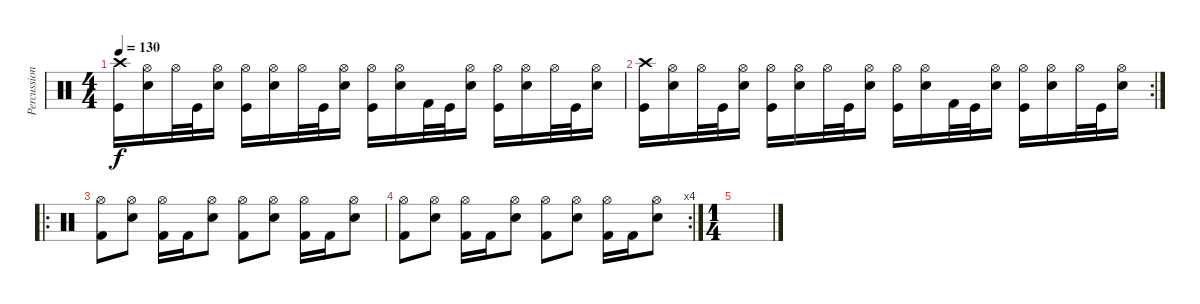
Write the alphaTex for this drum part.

\track ("Percussion" "Percussion") {instrument percussion}
\staff {score}
\articulation defaults
\ts (4 4)
\tempo 130
\clef neutral
\ks c
("Crash high (hit)" "Kick (hit)").16{dy f} ("Hi-Hat (open)" "Snare (hit) 2").16 "Hi-Hat (open)".32 "Kick (hit)".32 ("Hi-Hat (open)" "Snare (hit) 2").16 ("Hi-Hat (open)" "Kick (hit)").16 ("Hi-Hat (open)" "Snare (hit) 2").16 "Hi-Hat (open)".32 "Kick (hit)".32 ("Hi-Hat (open)" "Snare (hit) 2").16 ("Hi-Hat (open)" "Kick (hit)").16 ("Hi-Hat (open)" "Snare (hit) 2").16 "Kick (hit) 2".32 "Kick (hit)".32 ("Hi-Hat (open)" "Snare (hit) 2").16 ("Hi-Hat (open)" "Kick (hit)").16 ("Hi-Hat (open)" "Snare (hit) 2").16 "Hi-Hat (open)".32 "Kick (hit)".32 ("Hi-Hat (open)" "Snare (hit) 2").16 |
\rc 2
("Crash high (hit)" "Kick (hit)").16 ("Hi-Hat (open)" "Snare (hit) 2").16 "Hi-Hat (open)".32 "Kick (hit)".32 ("Hi-Hat (open)" "Snare (hit) 2").16 ("Hi-Hat (open)" "Kick (hit)").16 ("Hi-Hat (open)" "Snare (hit) 2").16 "Hi-Hat (open)".32 "Kick (hit)".32 ("Hi-Hat (open)" "Snare (hit) 2").16 ("Hi-Hat (open)" "Kick (hit)").16 ("Hi-Hat (open)" "Snare (hit) 2").16 "Kick (hit) 2".32 "Kick (hit)".32 ("Hi-Hat (open)" "Snare (hit) 2").16 ("Hi-Hat (open)" "Kick (hit)").16 ("Hi-Hat (open)" "Snare (hit) 2").16 "Hi-Hat (open)".32 "Kick (hit)".32 ("Hi-Hat (open)" "Snare (hit) 2").16 |
\ro
("Hi-Hat (open)" "Kick (hit) 2").8 ("Hi-Hat (open)" "Snare (hit) 2").8 ("Hi-Hat (open)" "Kick (hit) 2").16 "Kick (hit) 2".16 ("Hi-Hat (open)" "Snare (hit) 2").8 ("Hi-Hat (open)" "Kick (hit) 2").8 ("Hi-Hat (open)" "Snare (hit) 2").8 ("Hi-Hat (open)" "Kick (hit) 2").16 "Kick (hit) 2".16 ("Hi-Hat (open)" "Snare (hit) 2").8 |
\rc 4
("Hi-Hat (open)" "Kick (hit) 2").8 ("Hi-Hat (open)" "Snare (hit) 2").8 ("Hi-Hat (open)" "Kick (hit) 2").16 "Kick (hit) 2".16 ("Hi-Hat (open)" "Snare (hit) 2").8 ("Hi-Hat (open)" "Kick (hit) 2").8 ("Hi-Hat (open)" "Snare (hit) 2").8 ("Hi-Hat (open)" "Kick (hit) 2").16 "Kick (hit) 2".16 ("Hi-Hat (open)" "Snare (hit) 2").8 |
\ts (1 4)
